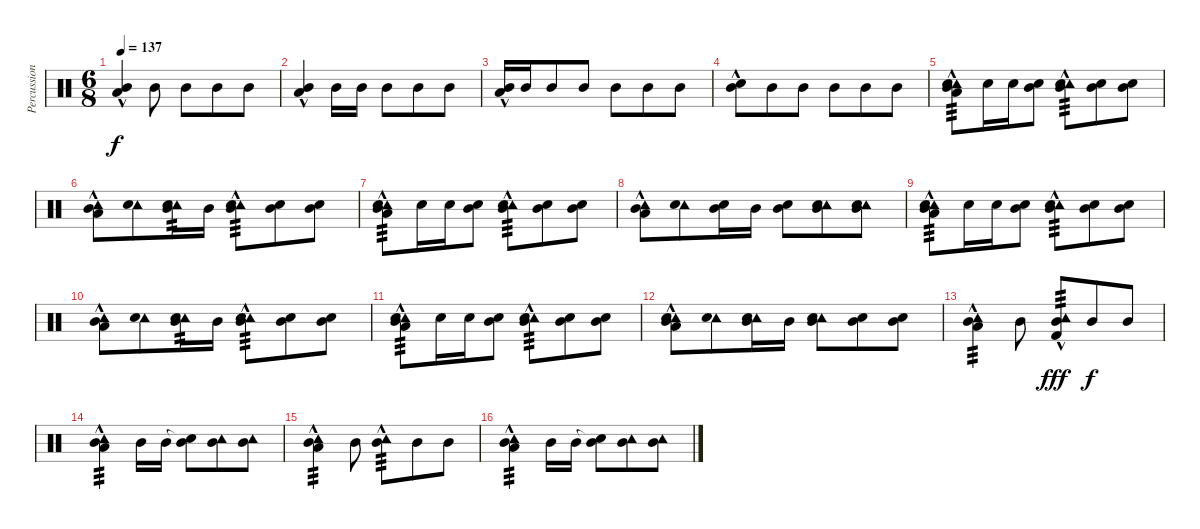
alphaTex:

\track ("Percussion" "Percussion") {instrument percussion}
\staff {score}
\articulation defaults
\ts (6 8)
\tempo 137
\clef neutral
\ks c
("Mid Tom (hit)" "Low Floor Tom (hit)"{hac}).4{dy f} "Mid Tom (hit)".8 "Mid Tom (hit)".8 "Mid Tom (hit)".8 "Mid Tom (hit)".8 |
("Mid Tom (hit)" "Low Floor Tom (hit)"{hac}).4 "Mid Tom (hit)".16 "Mid Tom (hit)".16 "Mid Tom (hit)".8 "Mid Tom (hit)".8 "Mid Tom (hit)".8 |
("Mid Tom (hit)" "Low Floor Tom (hit)"{hac}).16 "Mid Tom (hit)".16 "Mid Tom (hit)".8 "Mid Tom (hit)".8 "Mid Tom (hit)".8 "Mid Tom (hit)".8 "Mid Tom (hit)".8 |
("Mid Tom (hit)" "Snare (hit)"{hac}).8 "Mid Tom (hit)".8 "Mid Tom (hit)".8 "Mid Tom (hit)".8 "Mid Tom (hit)".8 "Mid Tom (hit)".8 |
("Tambourine (hit)"{hac} "Snare (hit) 2" "Mid Tom (hit)" "Low Floor Tom (hit)"{hac}).8{tp 3} "Snare (hit) 2".16 "Snare (hit) 2".16 ("Snare (hit) 2" "Mid Tom (hit)").8 ("Tambourine (hit)"{hac} "Snare (hit) 2" "Mid Tom (hit)").8{tp 3} ("Snare (hit) 2" "Mid Tom (hit)").8 ("Snare (hit) 2" "Mid Tom (hit)").8 |
("Tambourine (hit)" "Mid Tom (hit)" "Low Floor Tom (hit)"{hac}).8 ("Tambourine (hit)" "Snare (hit) 2").8 ("Tambourine (hit)" "Snare (hit) 2" "Mid Tom (hit)").16{tp 2} "Mid Tom (hit)".16 ("Tambourine (hit)"{hac} "Snare (hit) 2" "Mid Tom (hit)").8{tp 3} ("Snare (hit) 2" "Mid Tom (hit)").8 ("Snare (hit) 2" "Mid Tom (hit)").8 |
("Tambourine (hit)"{hac} "Snare (hit) 2" "Mid Tom (hit)" "Low Floor Tom (hit)"{hac}).8{tp 3} "Snare (hit) 2".16 "Snare (hit) 2".16 ("Snare (hit) 2" "Mid Tom (hit)").8 ("Tambourine (hit)"{hac} "Snare (hit) 2" "Mid Tom (hit)").8{tp 3} ("Snare (hit) 2" "Mid Tom (hit)").8 ("Snare (hit) 2" "Mid Tom (hit)").8 |
("Tambourine (hit)" "Mid Tom (hit)" "Low Floor Tom (hit)"{hac}).8 ("Tambourine (hit)" "Snare (hit) 2").8 ("Snare (hit) 2" "Mid Tom (hit)").16 "Mid Tom (hit)".16 ("Snare (hit) 2" "Mid Tom (hit)").8 ("Tambourine (hit)" "Snare (hit) 2" "Mid Tom (hit)").8 ("Tambourine (hit)" "Snare (hit) 2" "Mid Tom (hit)").8 |
("Tambourine (hit)"{hac} "Snare (hit) 2" "Mid Tom (hit)" "Low Floor Tom (hit)"{hac}).8{tp 3} "Snare (hit) 2".16 "Snare (hit) 2".16 ("Snare (hit) 2" "Mid Tom (hit)").8 ("Tambourine (hit)"{hac} "Snare (hit) 2" "Mid Tom (hit)").8{tp 3} ("Snare (hit) 2" "Mid Tom (hit)").8 ("Snare (hit) 2" "Mid Tom (hit)").8 |
("Tambourine (hit)" "Mid Tom (hit)" "Low Floor Tom (hit)"{hac}).8 ("Tambourine (hit)" "Snare (hit) 2").8 ("Tambourine (hit)" "Snare (hit) 2" "Mid Tom (hit)").16{tp 2} "Mid Tom (hit)".16 ("Tambourine (hit)"{hac} "Snare (hit) 2" "Mid Tom (hit)").8{tp 3} ("Snare (hit) 2" "Mid Tom (hit)").8 ("Snare (hit) 2" "Mid Tom (hit)").8 |
("Tambourine (hit)"{hac} "Snare (hit) 2" "Mid Tom (hit)" "Low Floor Tom (hit)"{hac}).8{tp 3} "Snare (hit) 2".16 "Snare (hit) 2".16 ("Snare (hit) 2" "Mid Tom (hit)").8 ("Tambourine (hit)"{hac} "Snare (hit) 2" "Mid Tom (hit)").8{tp 3} ("Snare (hit) 2" "Mid Tom (hit)").8 ("Snare (hit) 2" "Mid Tom (hit)").8 |
("Tambourine (hit)" "Snare (hit) 2" "Mid Tom (hit)" "Low Floor Tom (hit)"{hac}).8 ("Tambourine (hit)" "Snare (hit) 2").8 ("Tambourine (hit)" "Snare (hit) 2" "Mid Tom (hit)").16 "Mid Tom (hit)".16 ("Tambourine (hit)" "Snare (hit) 2" "Mid Tom (hit)").8 ("Snare (hit) 2" "Mid Tom (hit)").8 ("Snare (hit) 2" "Mid Tom (hit)").8 |
("Tambourine (hit)"{hac} "Mid Tom (hit)" "Low Floor Tom (hit)"{hac}).4{tp 3} "Mid Tom (hit)".8 ("Tambourine (hit)"{hac} "Mid Tom (hit)" "Kick (hit) 2"{hac}).8{tp 3 dy fff} "Mid Tom (hit)".8{dy f} "Mid Tom (hit)".8 |
("Tambourine (hit)"{hac} "Mid Tom (hit)" "Low Floor Tom (hit)"{hac}).4{tp 3} "Mid Tom (hit)".16 "Mid Tom (hit)".16 ("Snare (hit)"{t} "Mid Tom (hit)").8 ("Tambourine (hit)" "Mid Tom (hit)").8 ("Tambourine (hit)" "Mid Tom (hit)").8 |
("Tambourine (hit)"{hac} "Mid Tom (hit)" "Low Floor Tom (hit)"{hac}).4{tp 3} "Mid Tom (hit)".8 ("Tambourine (hit)"{hac} "Mid Tom (hit)").8{tp 3} "Mid Tom (hit)".8 "Mid Tom (hit)".8 |
("Tambourine (hit)"{hac} "Mid Tom (hit)" "Low Floor Tom (hit)"{hac}).4{tp 3} "Mid Tom (hit)".16 "Mid Tom (hit)".16 ("Snare (hit)"{t} "Mid Tom (hit)").8 ("Tambourine (hit)" "Mid Tom (hit)").8 ("Tambourine (hit)" "Mid Tom (hit)").8
